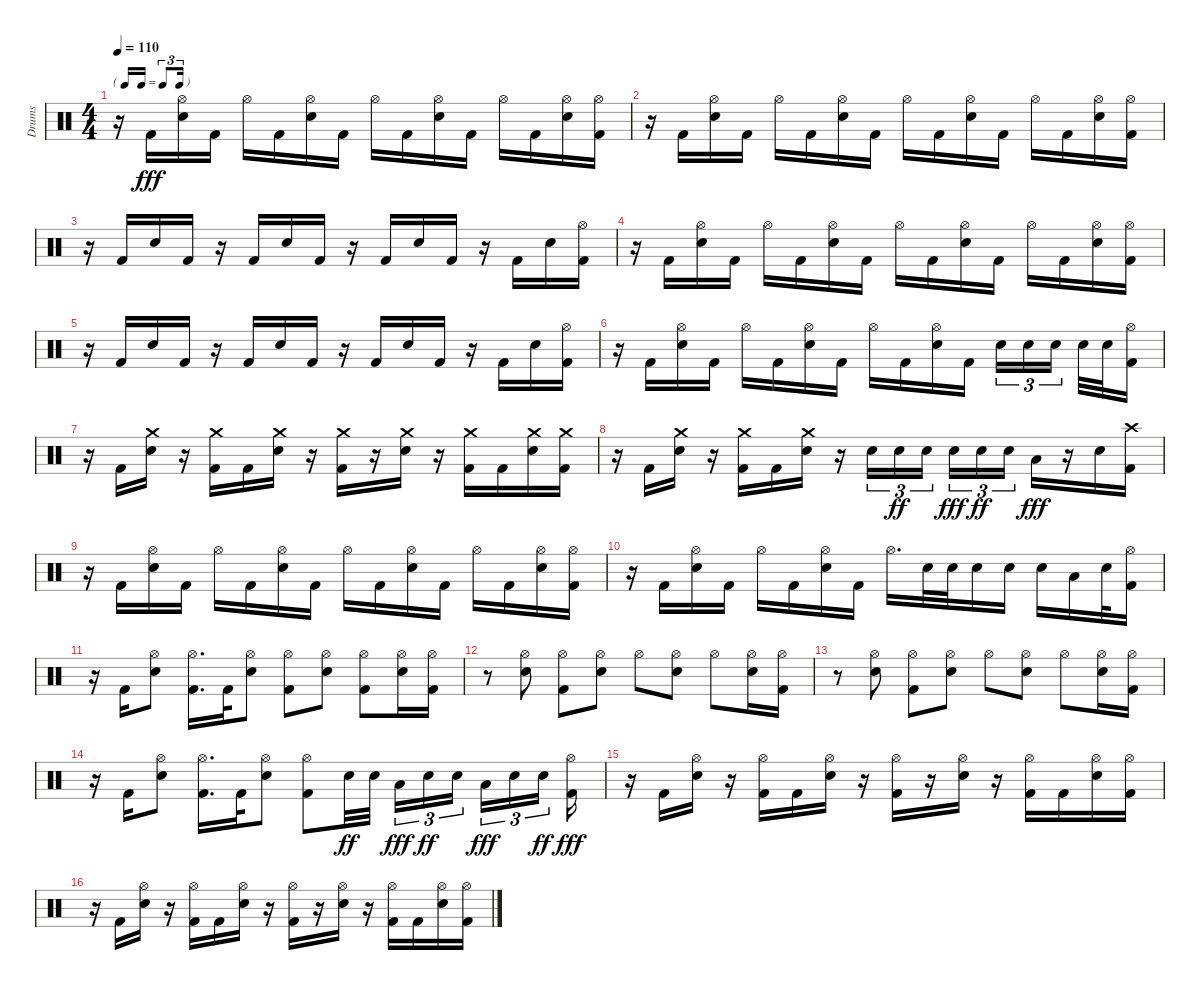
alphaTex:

\track ("Drums" "Drums") {instrument percussion}
\staff {score}
\articulation defaults
\ts (4 4)
\tf triplet16th
\tempo 110
\clef neutral
\ks c
r.16{dy fff} "Kick (hit) 2".16 ("Hi-Hat (open)" "Snare (hit) 2").16 "Kick (hit) 2".16 "Hi-Hat (open)".16 "Kick (hit) 2".16 ("Hi-Hat (open)" "Snare (hit) 2").16 "Kick (hit) 2".16 "Hi-Hat (open)".16 "Kick (hit) 2".16 ("Hi-Hat (open)" "Snare (hit) 2").16 "Kick (hit) 2".16 "Hi-Hat (open)".16 "Kick (hit) 2".16 ("Hi-Hat (open)" "Snare (hit) 2").16 ("Hi-Hat (open)" "Kick (hit) 2").16 |
r.16 "Kick (hit) 2".16 ("Hi-Hat (open)" "Snare (hit) 2").16 "Kick (hit) 2".16 "Hi-Hat (open)".16 "Kick (hit) 2".16 ("Hi-Hat (open)" "Snare (hit) 2").16 "Kick (hit) 2".16 "Hi-Hat (open)".16 "Kick (hit) 2".16 ("Hi-Hat (open)" "Snare (hit) 2").16 "Kick (hit) 2".16 "Hi-Hat (open)".16 "Kick (hit) 2".16 ("Hi-Hat (open)" "Snare (hit) 2").16 ("Hi-Hat (open)" "Kick (hit) 2").16 |
r.16 "Kick (hit) 2".16 "Snare (hit) 2".16 "Kick (hit) 2".16 r.16 "Kick (hit) 2".16 "Snare (hit) 2".16 "Kick (hit) 2".16 r.16 "Kick (hit) 2".16 "Snare (hit) 2".16 "Kick (hit) 2".16 r.16 "Kick (hit) 2".16 "Snare (hit) 2".16 ("Hi-Hat (open)" "Kick (hit) 2").16 |
r.16 "Kick (hit) 2".16 ("Hi-Hat (open)" "Snare (hit) 2").16 "Kick (hit) 2".16 "Hi-Hat (open)".16 "Kick (hit) 2".16 ("Hi-Hat (open)" "Snare (hit) 2").16 "Kick (hit) 2".16 "Hi-Hat (open)".16 "Kick (hit) 2".16 ("Hi-Hat (open)" "Snare (hit) 2").16 "Kick (hit) 2".16 "Hi-Hat (open)".16 "Kick (hit) 2".16 ("Hi-Hat (open)" "Snare (hit) 2").16 ("Hi-Hat (open)" "Kick (hit) 2").16 |
r.16 "Kick (hit) 2".16 "Snare (hit) 2".16 "Kick (hit) 2".16 r.16 "Kick (hit) 2".16 "Snare (hit) 2".16 "Kick (hit) 2".16 r.16 "Kick (hit) 2".16 "Snare (hit) 2".16 "Kick (hit) 2".16 r.16 "Kick (hit) 2".16 "Snare (hit) 2".16 ("Hi-Hat (open)" "Kick (hit) 2").16 |
r.16 "Kick (hit) 2".16 ("Hi-Hat (open)" "Snare (hit) 2").16 "Kick (hit) 2".16 "Hi-Hat (open)".16 "Kick (hit) 2".16 ("Hi-Hat (open)" "Snare (hit) 2").16 "Kick (hit) 2".16 "Hi-Hat (open)".16 "Kick (hit) 2".16 ("Hi-Hat (open)" "Snare (hit) 2").16 "Kick (hit) 2".16 "Snare (hit) 2".16{tu (3 2)} "Snare (hit) 2".16{tu (3 2)} "Snare (hit) 2".16{tu (3 2) beam splitsecondary} "Snare (hit) 2".32 "Snare (hit) 2".32 ("Hi-Hat (open)" "Kick (hit) 2").16 |
r.16 "Kick (hit) 2".16 ("Crash medium (hit)" "Snare (hit) 2").16 r.16 ("Crash medium (hit)" "Kick (hit) 2").16 "Kick (hit) 2".16 ("Crash medium (hit)" "Snare (hit) 2").16 r.16 ("Crash medium (hit)" "Kick (hit) 2").16 r.16 ("Crash medium (hit)" "Snare (hit) 2").16 r.16 ("Crash medium (hit)" "Kick (hit) 2").16 "Kick (hit) 2".16 ("Crash medium (hit)" "Snare (hit) 2").16 ("Crash medium (hit)" "Kick (hit) 2").16 |
r.16 "Kick (hit) 2".16 ("Crash medium (hit)" "Snare (hit) 2").16 r.16 ("Crash medium (hit)" "Kick (hit) 2").16 "Kick (hit) 2".16 ("Crash medium (hit)" "Snare (hit) 2").16 r.16 "Snare (hit) 2".16{tu (3 2)} "Snare (hit) 2".16{tu (3 2) dy ff} "Snare (hit) 2".16{tu (3 2) beam splitsecondary} "Snare (hit) 2".16{tu (3 2) dy fff} "Snare (hit) 2".16{tu (3 2) dy ff} "Snare (hit) 2".16{tu (3 2)} "Low Tom (hit)".16{dy fff} r.16 "Snare (hit) 2".16 ("Crash high (hit)" "Kick (hit) 2").16 |
r.16 "Kick (hit) 2".16 ("Hi-Hat (open)" "Snare (hit) 2").16 "Kick (hit) 2".16 "Hi-Hat (open)".16 "Kick (hit) 2".16 ("Hi-Hat (open)" "Snare (hit) 2").16 "Kick (hit) 2".16 "Hi-Hat (open)".16 "Kick (hit) 2".16 ("Hi-Hat (open)" "Snare (hit) 2").16 "Kick (hit) 2".16 "Hi-Hat (open)".16 "Kick (hit) 2".16 ("Hi-Hat (open)" "Snare (hit) 2").16 ("Hi-Hat (open)" "Kick (hit) 2").16 |
r.16 "Kick (hit) 2".16 ("Hi-Hat (open)" "Snare (hit) 2").16 "Kick (hit) 2".16 "Hi-Hat (open)".16 "Kick (hit) 2".16 ("Hi-Hat (open)" "Snare (hit) 2").16 "Kick (hit) 2".16 "Hi-Hat (open)".16{d} "Snare (hit) 2".32 "Snare (hit) 2".32 "Snare (hit) 2".16 "Snare (hit) 2".16 "Snare (hit) 2".16 "Low Tom (hit)".16 "Snare (hit) 2".32 ("Hi-Hat (open)" "Kick (hit) 2").16 |
r.16 "Kick (hit) 2".16 ("Hi-Hat (open)" "Snare (hit) 2").8 ("Hi-Hat (open)" "Kick (hit) 2").16{d} "Kick (hit) 2".32 ("Hi-Hat (open)" "Snare (hit) 2").8 ("Hi-Hat (open)" "Kick (hit) 2").8 ("Hi-Hat (open)" "Snare (hit) 2").8 ("Hi-Hat (open)" "Kick (hit) 2").8 ("Hi-Hat (open)" "Snare (hit) 2").16 ("Hi-Hat (open)" "Kick (hit) 2").16 |
r.8 ("Hi-Hat (open)" "Snare (hit) 2").8 ("Hi-Hat (open)" "Kick (hit) 2").8 ("Hi-Hat (open)" "Snare (hit) 2").8 "Hi-Hat (open)".8 ("Hi-Hat (open)" "Snare (hit) 2").8 "Hi-Hat (open)".8 ("Hi-Hat (open)" "Snare (hit) 2").16 ("Hi-Hat (open)" "Kick (hit) 2").16 |
r.8 ("Hi-Hat (open)" "Snare (hit) 2").8 ("Hi-Hat (open)" "Kick (hit) 2").8 ("Hi-Hat (open)" "Snare (hit) 2").8 "Hi-Hat (open)".8 ("Hi-Hat (open)" "Snare (hit) 2").8 "Hi-Hat (open)".8 ("Hi-Hat (open)" "Snare (hit) 2").16 ("Hi-Hat (open)" "Kick (hit) 2").16 |
r.16 "Kick (hit) 2".16 ("Hi-Hat (open)" "Snare (hit) 2").8 ("Hi-Hat (open)" "Kick (hit) 2").16{d} "Kick (hit) 2".32 ("Hi-Hat (open)" "Snare (hit) 2").8 ("Hi-Hat (open)" "Kick (hit) 2").8 "Snare (hit) 2".32{dy ff} "Snare (hit) 2".32{beam splitsecondary} "Low Tom (hit)".16{tu (3 2) dy fff} "Snare (hit) 2".16{tu (3 2) dy ff} "Snare (hit) 2".16{tu (3 2) beam splitsecondary} "Low Tom (hit)".16{tu (3 2) dy fff} "Snare (hit) 2".16{tu (3 2)} "Snare (hit) 2".16{tu (3 2) dy ff beam splitsecondary} ("Hi-Hat (open)" "Kick (hit) 2").16{dy fff} |
r.16 "Kick (hit) 2".16 ("Hi-Hat (open)" "Snare (hit) 2").16 r.16 ("Hi-Hat (open)" "Kick (hit) 2").16 "Kick (hit) 2".16 ("Hi-Hat (open)" "Snare (hit) 2").16 r.16 ("Hi-Hat (open)" "Kick (hit) 2").16 r.16 ("Hi-Hat (open)" "Snare (hit) 2").16 r.16 ("Hi-Hat (open)" "Kick (hit) 2").16 "Kick (hit) 2".16 ("Hi-Hat (open)" "Snare (hit) 2").16 ("Hi-Hat (open)" "Kick (hit) 2").16 |
r.16 "Kick (hit) 2".16 ("Hi-Hat (open)" "Snare (hit) 2").16 r.16 ("Hi-Hat (open)" "Kick (hit) 2").16 "Kick (hit) 2".16 ("Hi-Hat (open)" "Snare (hit) 2").16 r.16 ("Hi-Hat (open)" "Kick (hit) 2").16 r.16 ("Hi-Hat (open)" "Snare (hit) 2").16 r.16 ("Hi-Hat (open)" "Kick (hit) 2").16 "Kick (hit) 2".16 ("Hi-Hat (open)" "Snare (hit) 2").16 ("Hi-Hat (open)" "Kick (hit) 2").16
